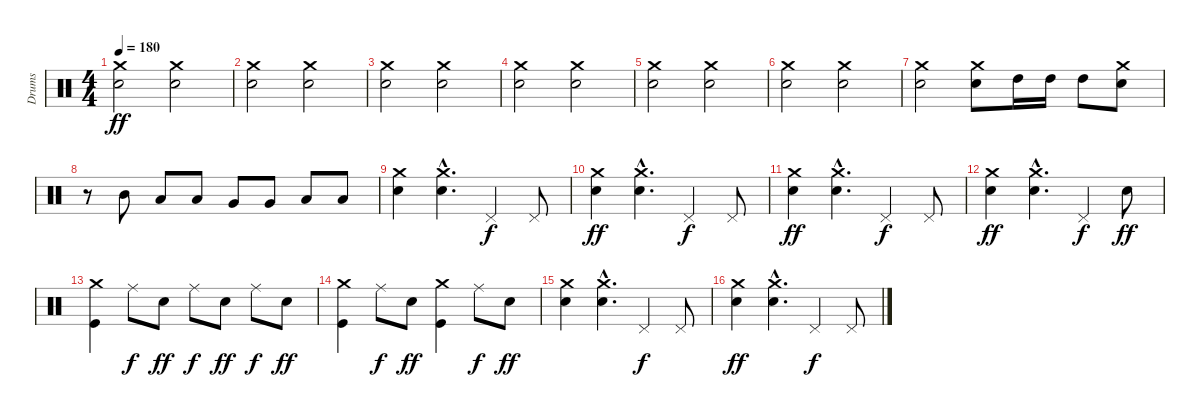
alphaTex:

\track ("Drums" "Drums") {instrument percussion}
\staff {score}
\articulation defaults
\ts (4 4)
\tempo 180
\clef neutral
\ks c
("Crash medium (hit)" "Electric Snare (hit)").2{dy ff} ("Crash medium (hit)" "Electric Snare (hit)").2 |
("Crash medium (hit)" "Electric Snare (hit)").2 ("Crash medium (hit)" "Electric Snare (hit)").2 |
("Crash medium (hit)" "Electric Snare (hit)").2 ("Crash medium (hit)" "Electric Snare (hit)").2 |
("Crash medium (hit)" "Electric Snare (hit)").2 ("Crash medium (hit)" "Electric Snare (hit)").2 |
("Crash medium (hit)" "Electric Snare (hit)").2 ("Crash medium (hit)" "Electric Snare (hit)").2 |
("Crash medium (hit)" "Electric Snare (hit)").2 ("Crash medium (hit)" "Electric Snare (hit)").2 |
("Crash medium (hit)" "Electric Snare (hit)").2 ("Crash medium (hit)" "Electric Snare (hit)").8 "High Tom (hit)".16 "High Tom (hit)".16 "High Tom (hit)".8 ("Crash medium (hit)" "Electric Snare (hit)").8 |
r.8 "Mid Tom (hit)".8 "Low Tom (hit)".8 "Low Tom (hit)".8 "Very Low Tom (hit)".8 "Very Low Tom (hit)".8 "Low Floor Tom (hit)".8 "Low Floor Tom (hit)".8 |
("Crash medium (hit)" "Electric Snare (hit)").4 ("Crash medium (hit)"{hac} "Electric Snare (hit)"{hac}).4{d} "Pedal Hi-Hat (hit)".4{dy f} "Pedal Hi-Hat (hit)".8 |
("Crash medium (hit)" "Electric Snare (hit)").4{dy ff} ("Crash medium (hit)"{hac} "Electric Snare (hit)"{hac}).4{d} "Pedal Hi-Hat (hit)".4{dy f} "Pedal Hi-Hat (hit)".8 |
("Crash medium (hit)" "Electric Snare (hit)").4{dy ff} ("Crash medium (hit)"{hac} "Electric Snare (hit)"{hac}).4{d} "Pedal Hi-Hat (hit)".4{dy f} "Pedal Hi-Hat (hit)".8 |
("Crash medium (hit)" "Electric Snare (hit)").4{dy ff} ("Crash medium (hit)"{hac} "Electric Snare (hit)"{hac}).4{d} "Pedal Hi-Hat (hit)".4{dy f} "Electric Snare (hit)".8{dy ff} |
("Crash medium (hit)" "Kick (hit)").4 "Ride (middle)".8{dy f} "Electric Snare (hit)".8{dy ff} "Ride (middle)".8{dy f} "Electric Snare (hit)".8{dy ff} "Ride (middle)".8{dy f} "Electric Snare (hit)".8{dy ff} |
("Crash medium (hit)" "Kick (hit)").4 "Ride (middle)".8{dy f} "Electric Snare (hit)".8{dy ff} ("Crash medium (hit)" "Kick (hit)").4 "Ride (middle)".8{dy f} "Electric Snare (hit)".8{dy ff} |
("Crash medium (hit)" "Electric Snare (hit)").4 ("Crash medium (hit)"{hac} "Electric Snare (hit)"{hac}).4{d} "Pedal Hi-Hat (hit)".4{dy f} "Pedal Hi-Hat (hit)".8 |
("Crash medium (hit)" "Electric Snare (hit)").4{dy ff} ("Crash medium (hit)"{hac} "Electric Snare (hit)"{hac}).4{d} "Pedal Hi-Hat (hit)".4{dy f} "Pedal Hi-Hat (hit)".8
